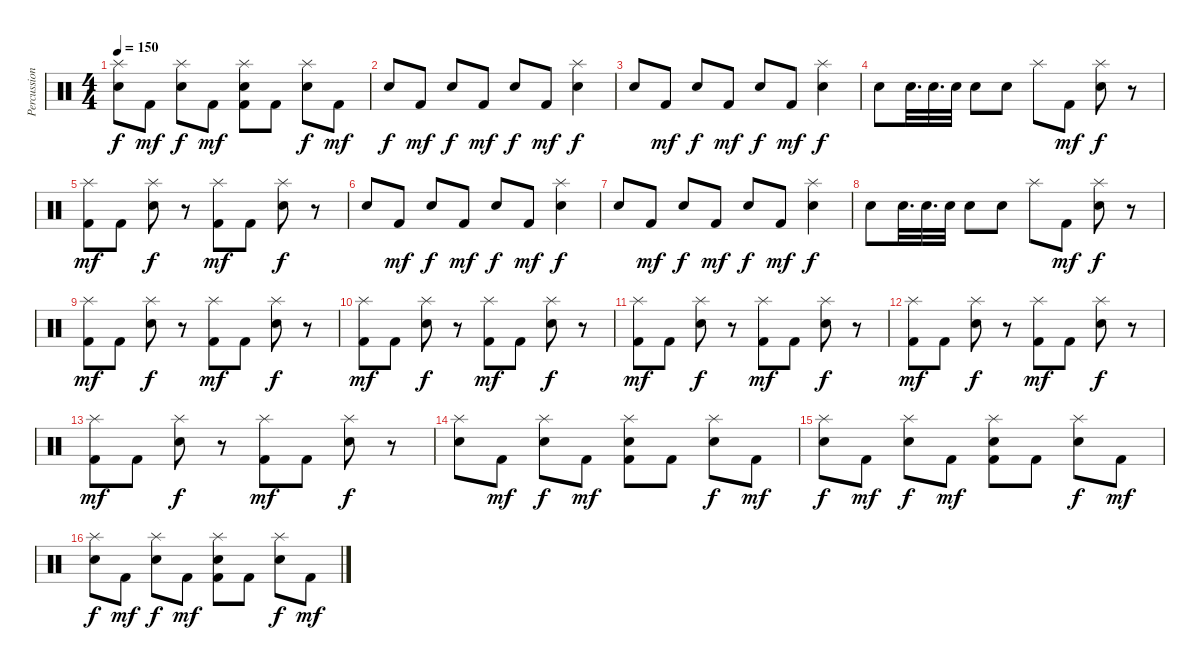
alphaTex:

\track ("Percussion" "Percussion") {instrument percussion}
\staff {score}
\articulation defaults
\ts (4 4)
\tempo 150
\clef neutral
\ks c
("Splash (hit)" "Snare (hit) 2").8{dy f} "Kick (hit) 2".8{dy mf} ("Splash (hit)" "Snare (hit) 2").8{dy f} "Kick (hit) 2".8{dy mf} ("Splash (hit)" "Snare (hit) 2" "Kick (hit) 2").8 "Kick (hit) 2".8 ("Splash (hit)" "Snare (hit) 2").8{dy f} "Kick (hit) 2".8{dy mf} |
"Snare (hit) 2".8{dy f} "Kick (hit) 2".8{dy mf} "Snare (hit) 2".8{dy f} "Kick (hit) 2".8{dy mf} "Snare (hit) 2".8{dy f} "Kick (hit) 2".8{dy mf} ("Splash (hit)" "Snare (hit) 2").4{dy f} |
"Snare (hit) 2".8 "Kick (hit) 2".8{dy mf} "Snare (hit) 2".8{dy f} "Kick (hit) 2".8{dy mf} "Snare (hit) 2".8{dy f} "Kick (hit) 2".8{dy mf} ("Splash (hit)" "Snare (hit) 2").4{dy f} |
"Snare (hit) 2".8 "Snare (hit) 2".32{d} "Snare (hit) 2".32{d} "Snare (hit) 2".32 "Snare (hit) 2".8 "Snare (hit) 2".8 "Splash (hit)".8 "Kick (hit) 2".8{dy mf} ("Splash (hit)" "Snare (hit) 2").8{dy f} r.8 |
("Splash (hit)" "Kick (hit) 2").8{dy mf} "Kick (hit) 2".8 ("Splash (hit)" "Snare (hit) 2").8{dy f} r.8 ("Splash (hit)" "Kick (hit) 2").8{dy mf} "Kick (hit) 2".8 ("Splash (hit)" "Snare (hit) 2").8{dy f} r.8 |
"Snare (hit) 2".8 "Kick (hit) 2".8{dy mf} "Snare (hit) 2".8{dy f} "Kick (hit) 2".8{dy mf} "Snare (hit) 2".8{dy f} "Kick (hit) 2".8{dy mf} ("Splash (hit)" "Snare (hit) 2").4{dy f} |
"Snare (hit) 2".8 "Kick (hit) 2".8{dy mf} "Snare (hit) 2".8{dy f} "Kick (hit) 2".8{dy mf} "Snare (hit) 2".8{dy f} "Kick (hit) 2".8{dy mf} ("Splash (hit)" "Snare (hit) 2").4{dy f} |
"Snare (hit) 2".8 "Snare (hit) 2".32{d} "Snare (hit) 2".32{d} "Snare (hit) 2".32 "Snare (hit) 2".8 "Snare (hit) 2".8 "Splash (hit)".8 "Kick (hit) 2".8{dy mf} ("Splash (hit)" "Snare (hit) 2").8{dy f} r.8 |
("Splash (hit)" "Kick (hit) 2").8{dy mf} "Kick (hit) 2".8 ("Splash (hit)" "Snare (hit) 2").8{dy f} r.8 ("Splash (hit)" "Kick (hit) 2").8{dy mf} "Kick (hit) 2".8 ("Splash (hit)" "Snare (hit) 2").8{dy f} r.8 |
("Splash (hit)" "Kick (hit) 2").8{dy mf} "Kick (hit) 2".8 ("Splash (hit)" "Snare (hit) 2").8{dy f} r.8 ("Splash (hit)" "Kick (hit) 2").8{dy mf} "Kick (hit) 2".8 ("Splash (hit)" "Snare (hit) 2").8{dy f} r.8 |
("Splash (hit)" "Kick (hit) 2").8{dy mf} "Kick (hit) 2".8 ("Splash (hit)" "Snare (hit) 2").8{dy f} r.8 ("Splash (hit)" "Kick (hit) 2").8{dy mf} "Kick (hit) 2".8 ("Splash (hit)" "Snare (hit) 2").8{dy f} r.8 |
("Splash (hit)" "Kick (hit) 2").8{dy mf} "Kick (hit) 2".8 ("Splash (hit)" "Snare (hit) 2").8{dy f} r.8 ("Splash (hit)" "Kick (hit) 2").8{dy mf} "Kick (hit) 2".8 ("Splash (hit)" "Snare (hit) 2").8{dy f} r.8 |
("Splash (hit)" "Kick (hit) 2").8{dy mf} "Kick (hit) 2".8 ("Splash (hit)" "Snare (hit) 2").8{dy f} r.8 ("Splash (hit)" "Kick (hit) 2").8{dy mf} "Kick (hit) 2".8 ("Splash (hit)" "Snare (hit) 2").8{dy f} r.8 |
("Splash (hit)" "Snare (hit) 2").8 "Kick (hit) 2".8{dy mf} ("Splash (hit)" "Snare (hit) 2").8{dy f} "Kick (hit) 2".8{dy mf} ("Splash (hit)" "Snare (hit) 2" "Kick (hit) 2").8 "Kick (hit) 2".8 ("Splash (hit)" "Snare (hit) 2").8{dy f} "Kick (hit) 2".8{dy mf} |
("Splash (hit)" "Snare (hit) 2").8{dy f} "Kick (hit) 2".8{dy mf} ("Splash (hit)" "Snare (hit) 2").8{dy f} "Kick (hit) 2".8{dy mf} ("Splash (hit)" "Snare (hit) 2" "Kick (hit) 2").8 "Kick (hit) 2".8 ("Splash (hit)" "Snare (hit) 2").8{dy f} "Kick (hit) 2".8{dy mf} |
("Splash (hit)" "Snare (hit) 2").8{dy f} "Kick (hit) 2".8{dy mf} ("Splash (hit)" "Snare (hit) 2").8{dy f} "Kick (hit) 2".8{dy mf} ("Splash (hit)" "Snare (hit) 2" "Kick (hit) 2").8 "Kick (hit) 2".8 ("Splash (hit)" "Snare (hit) 2").8{dy f} "Kick (hit) 2".8{dy mf}
